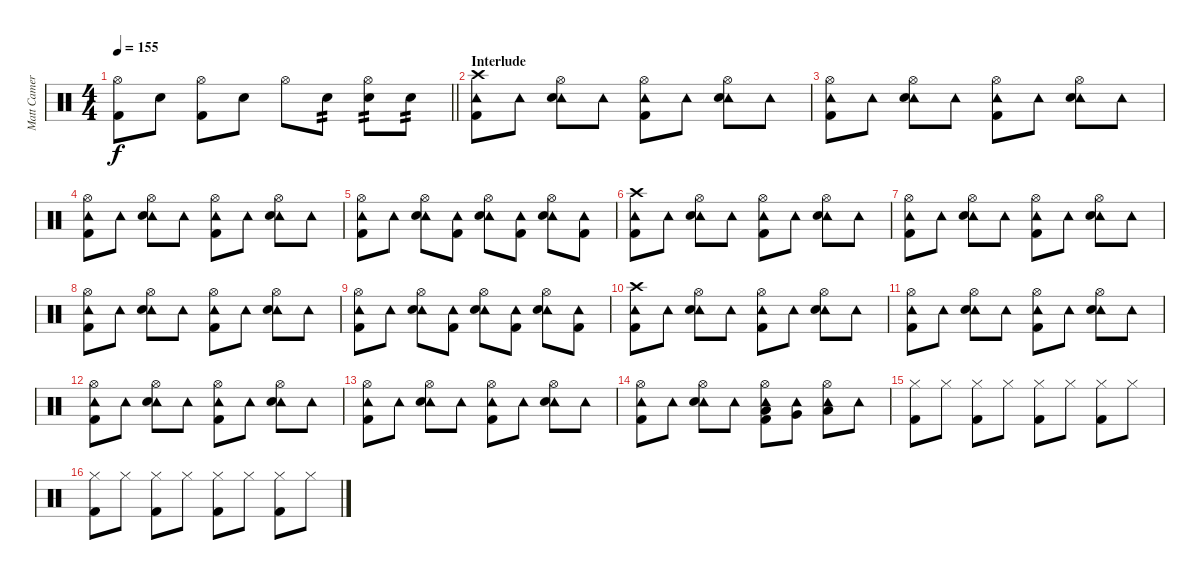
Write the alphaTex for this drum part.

\track ("Matt Cameron" "Matt Camer") {instrument percussion}
\staff {score}
\articulation defaults
\ts (4 4)
\tempo 155
\clef neutral
\barLineRight lightlight
\ks c
("Hi-Hat (open)" "Kick (hit) 2").8{dy f} "Snare (hit) 2".8 ("Hi-Hat (open)" "Kick (hit) 2").8 "Snare (hit) 2".8 "Hi-Hat (open)".8 "Snare (hit) 2".8{tp 2} ("Hi-Hat (open)" "Snare (hit) 2").8{tp 2} "Snare (hit) 2".8{tp 2} |
\section ("" "Interlude")
("Tambourine (hit)" "Crash high (hit)" "Kick (hit) 2").8 "Tambourine (hit)".8 ("Tambourine (hit)" "Hi-Hat (open)" "Snare (hit) 2").8 "Tambourine (hit)".8 ("Tambourine (hit)" "Hi-Hat (open)" "Kick (hit) 2").8 "Tambourine (hit)".8 ("Tambourine (hit)" "Hi-Hat (open)" "Snare (hit) 2").8 "Tambourine (hit)".8 |
("Tambourine (hit)" "Hi-Hat (open)" "Kick (hit) 2").8 "Tambourine (hit)".8 ("Tambourine (hit)" "Hi-Hat (open)" "Snare (hit) 2").8 "Tambourine (hit)".8 ("Tambourine (hit)" "Hi-Hat (open)" "Kick (hit) 2").8 "Tambourine (hit)".8 ("Tambourine (hit)" "Hi-Hat (open)" "Snare (hit) 2").8 "Tambourine (hit)".8 |
("Tambourine (hit)" "Hi-Hat (open)" "Kick (hit) 2").8 "Tambourine (hit)".8 ("Tambourine (hit)" "Hi-Hat (open)" "Snare (hit) 2").8 "Tambourine (hit)".8 ("Tambourine (hit)" "Hi-Hat (open)" "Kick (hit) 2").8 "Tambourine (hit)".8 ("Tambourine (hit)" "Hi-Hat (open)" "Snare (hit) 2").8 "Tambourine (hit)".8 |
("Tambourine (hit)" "Hi-Hat (open)" "Kick (hit) 2").8 "Tambourine (hit)".8 ("Tambourine (hit)" "Hi-Hat (open)" "Snare (hit) 2").8 ("Tambourine (hit)" "Kick (hit) 2").8 ("Tambourine (hit)" "Hi-Hat (open)" "Snare (hit) 2").8 ("Tambourine (hit)" "Kick (hit) 2").8 ("Tambourine (hit)" "Hi-Hat (open)" "Snare (hit) 2").8 ("Tambourine (hit)" "Kick (hit) 2").8 |
("Tambourine (hit)" "Crash high (hit)" "Kick (hit) 2").8 "Tambourine (hit)".8 ("Tambourine (hit)" "Hi-Hat (open)" "Snare (hit) 2").8 "Tambourine (hit)".8 ("Tambourine (hit)" "Hi-Hat (open)" "Kick (hit) 2").8 "Tambourine (hit)".8 ("Tambourine (hit)" "Hi-Hat (open)" "Snare (hit) 2").8 "Tambourine (hit)".8 |
("Tambourine (hit)" "Hi-Hat (open)" "Kick (hit) 2").8 "Tambourine (hit)".8 ("Tambourine (hit)" "Hi-Hat (open)" "Snare (hit) 2").8 "Tambourine (hit)".8 ("Tambourine (hit)" "Hi-Hat (open)" "Kick (hit) 2").8 "Tambourine (hit)".8 ("Tambourine (hit)" "Hi-Hat (open)" "Snare (hit) 2").8 "Tambourine (hit)".8 |
("Tambourine (hit)" "Hi-Hat (open)" "Kick (hit) 2").8 "Tambourine (hit)".8 ("Tambourine (hit)" "Hi-Hat (open)" "Snare (hit) 2").8 "Tambourine (hit)".8 ("Tambourine (hit)" "Hi-Hat (open)" "Kick (hit) 2").8 "Tambourine (hit)".8 ("Tambourine (hit)" "Hi-Hat (open)" "Snare (hit) 2").8 "Tambourine (hit)".8 |
("Tambourine (hit)" "Hi-Hat (open)" "Kick (hit) 2").8 "Tambourine (hit)".8 ("Tambourine (hit)" "Hi-Hat (open)" "Snare (hit) 2").8 ("Tambourine (hit)" "Kick (hit) 2").8 ("Tambourine (hit)" "Hi-Hat (open)" "Snare (hit) 2").8 ("Tambourine (hit)" "Kick (hit) 2").8 ("Tambourine (hit)" "Hi-Hat (open)" "Snare (hit) 2").8 ("Tambourine (hit)" "Kick (hit) 2").8 |
("Tambourine (hit)" "Crash high (hit)" "Kick (hit) 2").8 "Tambourine (hit)".8 ("Tambourine (hit)" "Hi-Hat (open)" "Snare (hit) 2").8 "Tambourine (hit)".8 ("Tambourine (hit)" "Hi-Hat (open)" "Kick (hit) 2").8 "Tambourine (hit)".8 ("Tambourine (hit)" "Hi-Hat (open)" "Snare (hit) 2").8 "Tambourine (hit)".8 |
("Tambourine (hit)" "Hi-Hat (open)" "Kick (hit) 2").8 "Tambourine (hit)".8 ("Tambourine (hit)" "Hi-Hat (open)" "Snare (hit) 2").8 "Tambourine (hit)".8 ("Tambourine (hit)" "Hi-Hat (open)" "Kick (hit) 2").8 "Tambourine (hit)".8 ("Tambourine (hit)" "Hi-Hat (open)" "Snare (hit) 2").8 "Tambourine (hit)".8 |
("Tambourine (hit)" "Hi-Hat (open)" "Kick (hit) 2").8 "Tambourine (hit)".8 ("Tambourine (hit)" "Hi-Hat (open)" "Snare (hit) 2").8 "Tambourine (hit)".8 ("Tambourine (hit)" "Hi-Hat (open)" "Kick (hit) 2").8 "Tambourine (hit)".8 ("Tambourine (hit)" "Hi-Hat (open)" "Snare (hit) 2").8 "Tambourine (hit)".8 |
("Tambourine (hit)" "Hi-Hat (open)" "Kick (hit) 2").8 "Tambourine (hit)".8 ("Tambourine (hit)" "Hi-Hat (open)" "Snare (hit) 2").8 "Tambourine (hit)".8 ("Tambourine (hit)" "Hi-Hat (open)" "Kick (hit) 2").8 "Tambourine (hit)".8 ("Tambourine (hit)" "Hi-Hat (open)" "Snare (hit) 2").8 "Tambourine (hit)".8 |
("Tambourine (hit)" "Hi-Hat (open)" "Kick (hit) 2").8 "Tambourine (hit)".8 ("Tambourine (hit)" "Hi-Hat (open)" "Snare (hit) 2").8 "Tambourine (hit)".8 ("Tambourine (hit)" "Hi-Hat (open)" "Low Tom (hit)" "Kick (hit) 2").8 ("Tambourine (hit)" "Very Low Tom (hit)").8 ("Tambourine (hit)" "Hi-Hat (open)" "Low Floor Tom (hit)").8 "Tambourine (hit)".8 |
("Hi-Hat (closed)" "Kick (hit) 2").8 "Hi-Hat (closed)".8 ("Hi-Hat (closed)" "Kick (hit) 2").8 "Hi-Hat (closed)".8 ("Hi-Hat (closed)" "Kick (hit) 2").8 "Hi-Hat (closed)".8 ("Hi-Hat (closed)" "Kick (hit) 2").8 "Hi-Hat (closed)".8 |
("Hi-Hat (closed)" "Kick (hit) 2").8 "Hi-Hat (closed)".8 ("Hi-Hat (closed)" "Kick (hit) 2").8 "Hi-Hat (closed)".8 ("Hi-Hat (closed)" "Kick (hit) 2").8 "Hi-Hat (closed)".8 ("Hi-Hat (closed)" "Kick (hit) 2").8 "Hi-Hat (closed)".8
